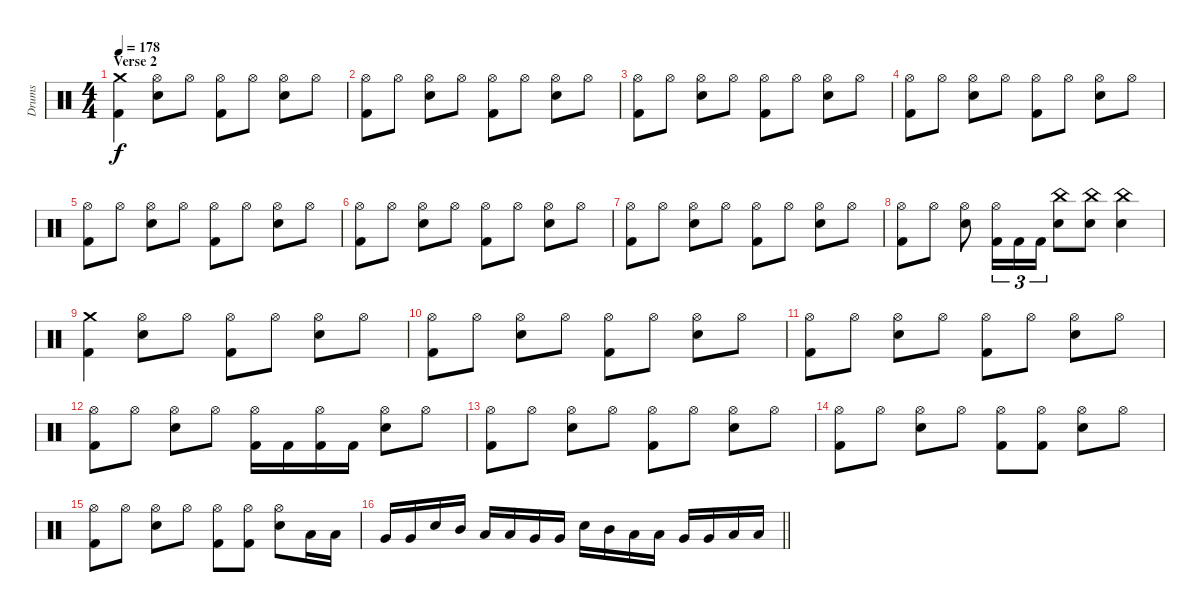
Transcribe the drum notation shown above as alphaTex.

\track ("Drums" "Drums") {instrument percussion}
\staff {score}
\articulation defaults
\ts (4 4)
\section ("" "Verse 2")
\tempo 178
\clef neutral
\ks c
("Crash medium (hit)" "Kick (hit) 2").4{dy f} ("Hi-Hat (open)" "Electric Snare (hit)").8 "Hi-Hat (open)".8 ("Hi-Hat (open)" "Kick (hit) 2").8 "Hi-Hat (open)".8 ("Hi-Hat (open)" "Electric Snare (hit)").8 "Hi-Hat (open)".8 |
("Hi-Hat (open)" "Kick (hit) 2").8 "Hi-Hat (open)".8 ("Hi-Hat (open)" "Electric Snare (hit)").8 "Hi-Hat (open)".8 ("Hi-Hat (open)" "Kick (hit) 2").8 "Hi-Hat (open)".8 ("Hi-Hat (open)" "Electric Snare (hit)").8 "Hi-Hat (open)".8 |
("Hi-Hat (open)" "Kick (hit) 2").8 "Hi-Hat (open)".8 ("Hi-Hat (open)" "Electric Snare (hit)").8 "Hi-Hat (open)".8 ("Hi-Hat (open)" "Kick (hit) 2").8 "Hi-Hat (open)".8 ("Hi-Hat (open)" "Electric Snare (hit)").8 "Hi-Hat (open)".8 |
("Hi-Hat (open)" "Kick (hit) 2").8 "Hi-Hat (open)".8 ("Hi-Hat (open)" "Electric Snare (hit)").8 "Hi-Hat (open)".8 ("Hi-Hat (open)" "Kick (hit) 2").8 "Hi-Hat (open)".8 ("Hi-Hat (open)" "Electric Snare (hit)").8 "Hi-Hat (open)".8 |
("Hi-Hat (open)" "Kick (hit) 2").8 "Hi-Hat (open)".8 ("Hi-Hat (open)" "Electric Snare (hit)").8 "Hi-Hat (open)".8 ("Hi-Hat (open)" "Kick (hit) 2").8 "Hi-Hat (open)".8 ("Hi-Hat (open)" "Electric Snare (hit)").8 "Hi-Hat (open)".8 |
("Hi-Hat (open)" "Kick (hit) 2").8 "Hi-Hat (open)".8 ("Hi-Hat (open)" "Electric Snare (hit)").8 "Hi-Hat (open)".8 ("Hi-Hat (open)" "Kick (hit) 2").8 "Hi-Hat (open)".8 ("Hi-Hat (open)" "Electric Snare (hit)").8 "Hi-Hat (open)".8 |
("Hi-Hat (open)" "Kick (hit) 2").8 "Hi-Hat (open)".8 ("Hi-Hat (open)" "Electric Snare (hit)").8 "Hi-Hat (open)".8 ("Hi-Hat (open)" "Kick (hit) 2").8 "Hi-Hat (open)".8 ("Hi-Hat (open)" "Electric Snare (hit)").8 "Hi-Hat (open)".8 |
("Hi-Hat (open)" "Kick (hit) 2").8 "Hi-Hat (open)".8 ("Hi-Hat (open)" "Electric Snare (hit)").8 ("Hi-Hat (open)" "Kick (hit) 2").16{tu (3 2)} "Kick (hit) 2".16{tu (3 2)} "Kick (hit) 2".16{tu (3 2)} ("China (hit)" "Electric Snare (hit)").8 ("China (hit)" "Electric Snare (hit)").8 ("China (hit)" "Electric Snare (hit)").4 |
("Crash medium (hit)" "Kick (hit) 2").4 ("Hi-Hat (open)" "Electric Snare (hit)").8 "Hi-Hat (open)".8 ("Hi-Hat (open)" "Kick (hit) 2").8 "Hi-Hat (open)".8 ("Hi-Hat (open)" "Electric Snare (hit)").8 "Hi-Hat (open)".8 |
("Hi-Hat (open)" "Kick (hit) 2").8 "Hi-Hat (open)".8 ("Hi-Hat (open)" "Electric Snare (hit)").8 "Hi-Hat (open)".8 ("Hi-Hat (open)" "Kick (hit) 2").8 "Hi-Hat (open)".8 ("Hi-Hat (open)" "Electric Snare (hit)").8 "Hi-Hat (open)".8 |
("Hi-Hat (open)" "Kick (hit) 2").8 "Hi-Hat (open)".8 ("Hi-Hat (open)" "Electric Snare (hit)").8 "Hi-Hat (open)".8 ("Hi-Hat (open)" "Kick (hit) 2").8 "Hi-Hat (open)".8 ("Hi-Hat (open)" "Electric Snare (hit)").8 "Hi-Hat (open)".8 |
("Hi-Hat (open)" "Kick (hit) 2").8 "Hi-Hat (open)".8 ("Hi-Hat (open)" "Electric Snare (hit)").8 "Hi-Hat (open)".8 ("Hi-Hat (open)" "Kick (hit) 2").16 "Kick (hit) 2".16 ("Hi-Hat (open)" "Kick (hit) 2").16 "Kick (hit) 2".16 ("Hi-Hat (open)" "Electric Snare (hit)").8 "Hi-Hat (open)".8 |
("Hi-Hat (open)" "Kick (hit) 2").8 "Hi-Hat (open)".8 ("Hi-Hat (open)" "Electric Snare (hit)").8 "Hi-Hat (open)".8 ("Hi-Hat (open)" "Kick (hit) 2").8 "Hi-Hat (open)".8 ("Hi-Hat (open)" "Electric Snare (hit)").8 "Hi-Hat (open)".8 |
("Hi-Hat (open)" "Kick (hit) 2").8 "Hi-Hat (open)".8 ("Hi-Hat (open)" "Electric Snare (hit)").8 "Hi-Hat (open)".8 ("Hi-Hat (open)" "Kick (hit) 2").8 ("Hi-Hat (open)" "Kick (hit) 2").8 ("Hi-Hat (open)" "Electric Snare (hit)").8 "Hi-Hat (open)".8 |
("Hi-Hat (open)" "Kick (hit) 2").8 "Hi-Hat (open)".8 ("Hi-Hat (open)" "Electric Snare (hit)").8 "Hi-Hat (open)".8 ("Hi-Hat (open)" "Kick (hit) 2").8 ("Hi-Hat (open)" "Kick (hit) 2").8 ("Hi-Hat (open)" "Electric Snare (hit)").8 "Low Tom (hit)".16 "Low Tom (hit)".16 |
\barLineRight lightlight "Very Low Tom (hit)".16 "Very Low Tom (hit)".16 "Electric Snare (hit)".16 "Mid Tom (hit)".16 "Low Tom (hit)".16 "Low Tom (hit)".16 "Very Low Tom (hit)".16 "Very Low Tom (hit)".16 "Electric Snare (hit)".16 "Mid Tom (hit)".16 "Low Tom (hit)".16 "Low Tom (hit)".16 "Very Low Tom (hit)".16 "Very Low Tom (hit)".16 "Low Floor Tom (hit)".16 "Low Floor Tom (hit)".16
